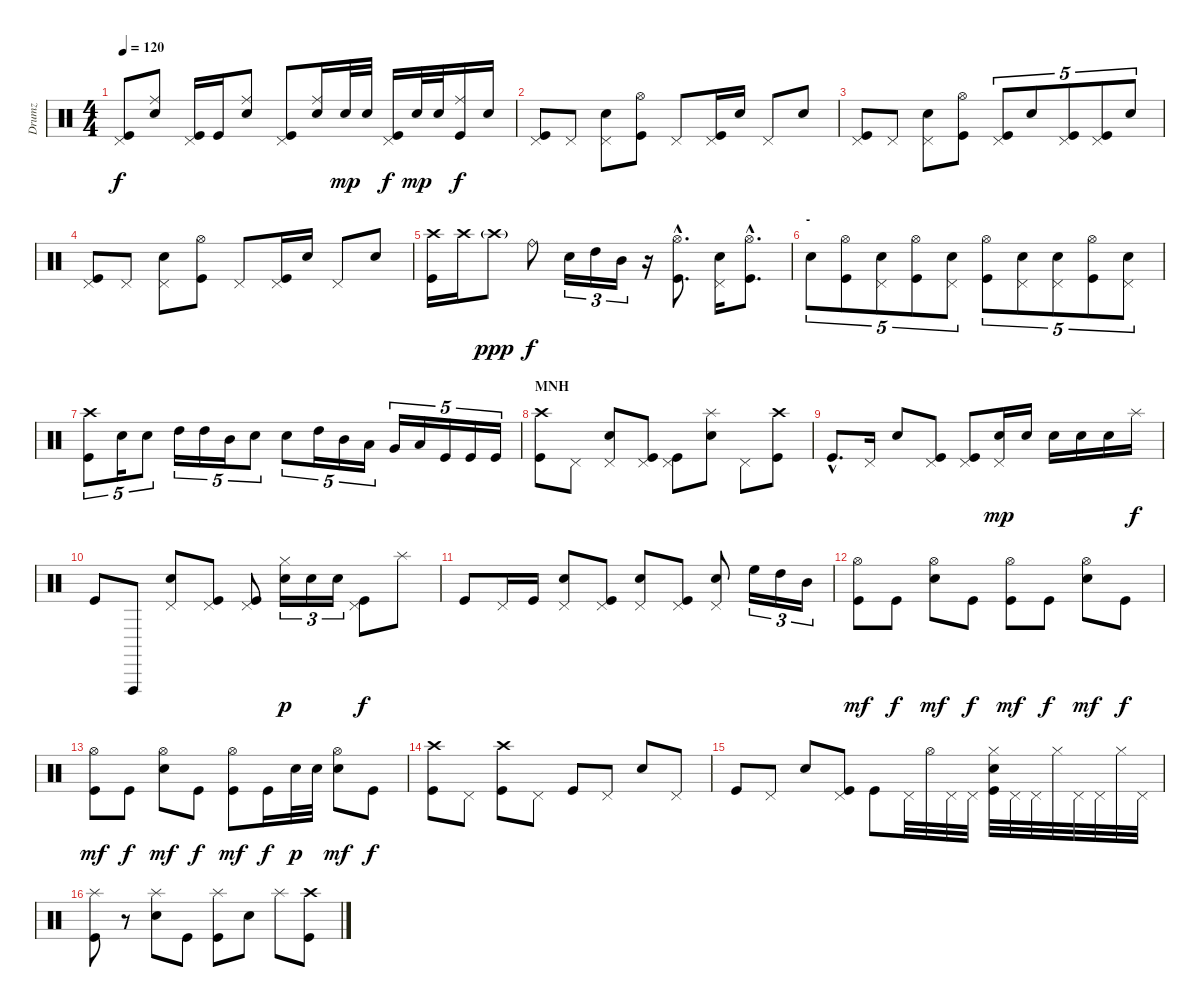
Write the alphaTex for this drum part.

\track ("Drumz" "Drumz") {instrument percussion}
\staff {score}
\articulation defaults
\ts (4 4)
\tempo 120
\clef neutral
\ks c
("Pedal Hi-Hat (hit)" "Kick (hit)").8{dy f} ("Ride (middle)" "Electric Snare (hit)").8 ("Pedal Hi-Hat (hit)" "Kick (hit)").16 "Kick (hit)".16 ("Ride (middle)" "Electric Snare (hit)").8 ("Pedal Hi-Hat (hit)" "Kick (hit)").8 ("Ride (middle)" "Electric Snare (hit)").16 "Electric Snare (hit)".32{dy mp} "Electric Snare (hit)".32 ("Pedal Hi-Hat (hit)" "Kick (hit)").16{dy f} "Electric Snare (hit)".32{dy mp} "Electric Snare (hit)".32 ("Ride (middle)" "Kick (hit)").16{dy f} "Electric Snare (hit)".16 |
("Pedal Hi-Hat (hit)" "Kick (hit)").8 "Pedal Hi-Hat (hit)".8 ("Pedal Hi-Hat (hit)" "Electric Snare (hit)").8 ("Hi-Hat (open)" "Kick (hit)").8 "Pedal Hi-Hat (hit)".8 ("Pedal Hi-Hat (hit)" "Kick (hit)").16 "Electric Snare (hit)".16 "Pedal Hi-Hat (hit)".8 "Electric Snare (hit)".8 |
("Pedal Hi-Hat (hit)" "Kick (hit)").8 "Pedal Hi-Hat (hit)".8 ("Pedal Hi-Hat (hit)" "Electric Snare (hit)").8 ("Hi-Hat (open)" "Kick (hit)").8 ("Pedal Hi-Hat (hit)" "Kick (hit)").8{tu (5 4)} "Electric Snare (hit)".8{tu (5 4)} ("Pedal Hi-Hat (hit)" "Kick (hit)").8{tu (5 4)} ("Pedal Hi-Hat (hit)" "Kick (hit)").8{tu (5 4)} "Electric Snare (hit)".8{tu (5 4)} |
("Pedal Hi-Hat (hit)" "Kick (hit)").8 "Pedal Hi-Hat (hit)".8 ("Pedal Hi-Hat (hit)" "Electric Snare (hit)").8 ("Hi-Hat (open)" "Kick (hit)").8 "Pedal Hi-Hat (hit)".8 ("Pedal Hi-Hat (hit)" "Kick (hit)").16 "Electric Snare (hit)".16 "Pedal Hi-Hat (hit)".8 "Electric Snare (hit)".8 |
("Crash high (hit)" "Kick (hit)").16 "Crash high (hit)".16 "Crash high (hit)"{g}.8{dy ppp} "Ride (bell)".8{dy f} "Electric Snare (hit)".16{tu (3 2)} "High Tom (hit)".16{tu (3 2)} "Mid Tom (hit)".16{tu (3 2)} r.16 ("Hi-Hat (open)"{hac} "Kick (hit)"{hac}).8{d} ("Pedal Hi-Hat (hit)" "Electric Snare (hit)").16 ("Hi-Hat (open)"{hac} "Kick (hit)"{hac}).8{d} |
\section ("" "-")
"Electric Snare (hit)".8{tu (5 4)} ("Hi-Hat (open)" "Kick (hit)").8{tu (5 4)} ("Pedal Hi-Hat (hit)" "Electric Snare (hit)").8{tu (5 4)} ("Hi-Hat (open)" "Kick (hit)").8{tu (5 4)} ("Pedal Hi-Hat (hit)" "Electric Snare (hit)").8{tu (5 4)} ("Hi-Hat (open)" "Kick (hit)").8{tu (5 4)} ("Pedal Hi-Hat (hit)" "Electric Snare (hit)").8{tu (5 4)} ("Pedal Hi-Hat (hit)" "Electric Snare (hit)").8{tu (5 4)} ("Hi-Hat (open)" "Kick (hit)").8{tu (5 4)} ("Pedal Hi-Hat (hit)" "Electric Snare (hit)").8{tu (5 4)} |
("Crash high (hit)" "Kick (hit)").8{tu (5 4)} "Electric Snare (hit)".16{tu (5 4)} "Electric Snare (hit)".8{tu (5 4)} "High Tom (hit)".16{tu (5 4)} "High Tom (hit)".16{tu (5 4)} "Mid Tom (hit)".16{tu (5 4)} "Electric Snare (hit)".8{tu (5 4)} "Electric Snare (hit)".8{tu (5 4)} "High Tom (hit)".16{tu (5 4)} "Mid Tom (hit)".16{tu (5 4)} "Low Tom (hit)".16{tu (5 4)} "Very Low Tom (hit)".16{tu (5 4)} "Low Floor Tom (hit)".16{tu (5 4)} "Kick (hit)".16{tu (5 4)} "Kick (hit)".16{tu (5 4)} "Kick (hit)".16{tu (5 4)} |
\section ("" "MNH")
("Crash high (hit)" "Kick (hit)").8 "Pedal Hi-Hat (hit)".8 ("Pedal Hi-Hat (hit)" "Electric Snare (hit)").8 ("Pedal Hi-Hat (hit)" "Kick (hit)").8 ("Pedal Hi-Hat (hit)" "Kick (hit)").8 ("Splash (hit)" "Electric Snare (hit)").8 "Pedal Hi-Hat (hit)".8 ("Crash high (hit)" "Kick (hit)").8 |
"Kick (hit)"{hac}.8{d} "Pedal Hi-Hat (hit)".16 "Electric Snare (hit)".8 ("Pedal Hi-Hat (hit)" "Kick (hit)").8 ("Pedal Hi-Hat (hit)" "Kick (hit)").8 ("Pedal Hi-Hat (hit)" "Electric Snare (hit)").16{dy mp} "Electric Snare (hit)".16 "Electric Snare (hit)".16 "Electric Snare (hit)".16 "Electric Snare (hit)".16 "Splash (hit)".16{dy f} |
"Kick (hit)".8 "Vibraslap (hit)".8 ("Pedal Hi-Hat (hit)" "Electric Snare (hit)").8 ("Pedal Hi-Hat (hit)" "Kick (hit)").8 ("Pedal Hi-Hat (hit)" "Kick (hit)").8 ("Hi-Hat (closed)" "Electric Snare (hit)").16{tu (3 2) dy p} "Electric Snare (hit)".16{tu (3 2)} "Electric Snare (hit)".16{tu (3 2)} ("Pedal Hi-Hat (hit)" "Kick (hit)").8{dy f} "Splash (hit)".8 |
"Kick (hit)".8 "Pedal Hi-Hat (hit)".16 "Kick (hit)".16 ("Pedal Hi-Hat (hit)" "Electric Snare (hit)").8 ("Pedal Hi-Hat (hit)" "Kick (hit)").8 ("Pedal Hi-Hat (hit)" "Electric Snare (hit)").8 ("Pedal Hi-Hat (hit)" "Kick (hit)").8 ("Pedal Hi-Hat (hit)" "Electric Snare (hit)").8 "High Floor Tom (hit)".16{tu (3 2)} "High Tom (hit)".16{tu (3 2)} "Mid Tom (hit)".16{tu (3 2)} |
("Hi-Hat (open)" "Kick (hit)").8{dy mf} "Kick (hit)".8{dy f} ("Hi-Hat (open)" "Electric Snare (hit)").8{dy mf} "Kick (hit)".8{dy f} ("Hi-Hat (open)" "Kick (hit)").8{dy mf} "Kick (hit)".8{dy f} ("Hi-Hat (open)" "Electric Snare (hit)").8{dy mf} "Kick (hit)".8{dy f} |
("Hi-Hat (open)" "Kick (hit)").8{dy mf} "Kick (hit)".8{dy f} ("Hi-Hat (open)" "Electric Snare (hit)").8{dy mf} "Kick (hit)".8{dy f} ("Hi-Hat (open)" "Kick (hit)").8{dy mf} "Kick (hit)".16{dy f} "Electric Snare (hit)".32{dy p} "Electric Snare (hit)".32 ("Hi-Hat (open)" "Electric Snare (hit)").8{dy mf} "Kick (hit)".8{dy f} |
("Crash high (hit)" "Kick (hit)").8 "Pedal Hi-Hat (hit)".8 ("Crash high (hit)" "Kick (hit)").8 "Pedal Hi-Hat (hit)".8 "Kick (hit)".8 "Pedal Hi-Hat (hit)".8 "Electric Snare (hit)".8 "Pedal Hi-Hat (hit)".8 |
"Kick (hit)".8 "Pedal Hi-Hat (hit)".8 "Electric Snare (hit)".8 ("Pedal Hi-Hat (hit)" "Kick (hit)").8 "Kick (hit)".8 "Pedal Hi-Hat (hit)".32 "Hi-Hat (open)".32 "Pedal Hi-Hat (hit)".32 "Pedal Hi-Hat (hit)".32 ("Hi-Hat (closed)" "Electric Snare (hit)" "Kick (hit)").32 "Pedal Hi-Hat (hit)".32 "Pedal Hi-Hat (hit)".32 "Hi-Hat (closed)".32 "Pedal Hi-Hat (hit)".32 "Pedal Hi-Hat (hit)".32 "Hi-Hat (closed)".32 "Pedal Hi-Hat (hit)".32 |
("Splash (hit)" "Kick (hit)").8 r.8 ("Splash (hit)" "Electric Snare (hit)").8 "Kick (hit)".8 ("Splash (hit)" "Kick (hit)").8 "Electric Snare (hit)".8 "Splash (hit)".8 ("Crash high (hit)" "Kick (hit)").8
